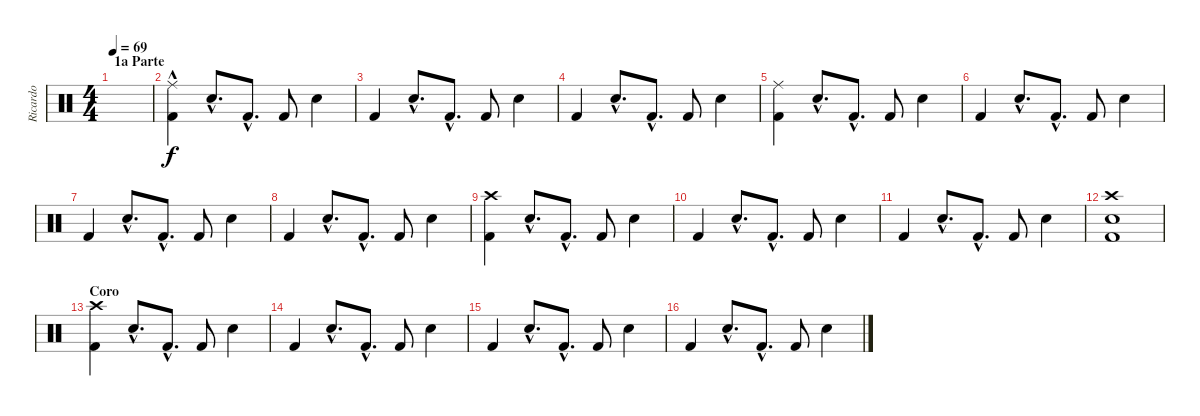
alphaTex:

\track ("Ricardo" "Ricardo") {instrument percussion}
\staff {score}
\articulation defaults
\ts (4 4)
\section ("" "1a Parte")
\tempo 69
\clef neutral
\ks c
|
("Kick (hit) 2" "Ride (middle)"{hac}).4 "Electric Snare (hit)"{hac}.8{d} "Kick (hit) 2"{hac}.8{d} "Kick (hit) 2".8 "Electric Snare (hit)".4 |
"Kick (hit) 2".4 "Electric Snare (hit)"{hac}.8{d} "Kick (hit) 2"{hac}.8{d} "Kick (hit) 2".8 "Electric Snare (hit)".4 |
"Kick (hit) 2".4 "Electric Snare (hit)"{hac}.8{d} "Kick (hit) 2"{hac}.8{d} "Kick (hit) 2".8 "Electric Snare (hit)".4 |
("Kick (hit) 2" "Ride (middle)").4 "Electric Snare (hit)"{hac}.8{d} "Kick (hit) 2"{hac}.8{d} "Kick (hit) 2".8 "Electric Snare (hit)".4 |
"Kick (hit) 2".4 "Electric Snare (hit)"{hac}.8{d} "Kick (hit) 2"{hac}.8{d} "Kick (hit) 2".8 "Electric Snare (hit)".4 |
"Kick (hit) 2".4 "Electric Snare (hit)"{hac}.8{d} "Kick (hit) 2"{hac}.8{d} "Kick (hit) 2".8 "Electric Snare (hit)".4 |
"Kick (hit) 2".4 "Electric Snare (hit)"{hac}.8{d} "Kick (hit) 2"{hac}.8{d} "Kick (hit) 2".8 "Electric Snare (hit)".4 |
("Kick (hit) 2" "Crash high (hit)").4 "Electric Snare (hit)"{hac}.8{d} "Kick (hit) 2"{hac}.8{d} "Kick (hit) 2".8 "Electric Snare (hit)".4 |
"Kick (hit) 2".4 "Electric Snare (hit)"{hac}.8{d} "Kick (hit) 2"{hac}.8{d} "Kick (hit) 2".8 "Electric Snare (hit)".4 |
"Kick (hit) 2".4 "Electric Snare (hit)"{hac}.8{d} "Kick (hit) 2"{hac}.8{d} "Kick (hit) 2".8 "Electric Snare (hit)".4 |
("Kick (hit) 2" "Electric Snare (hit)" "Crash high (hit)").1 |
\section ("" "Coro")
("Kick (hit) 2" "Crash high (hit)").4 "Electric Snare (hit)"{hac}.8{d} "Kick (hit) 2"{hac}.8{d} "Kick (hit) 2".8 "Electric Snare (hit)".4 |
"Kick (hit) 2".4 "Electric Snare (hit)"{hac}.8{d} "Kick (hit) 2"{hac}.8{d} "Kick (hit) 2".8 "Electric Snare (hit)".4 |
"Kick (hit) 2".4 "Electric Snare (hit)"{hac}.8{d} "Kick (hit) 2"{hac}.8{d} "Kick (hit) 2".8 "Electric Snare (hit)".4 |
"Kick (hit) 2".4 "Electric Snare (hit)"{hac}.8{d} "Kick (hit) 2"{hac}.8{d} "Kick (hit) 2".8 "Electric Snare (hit)".4
